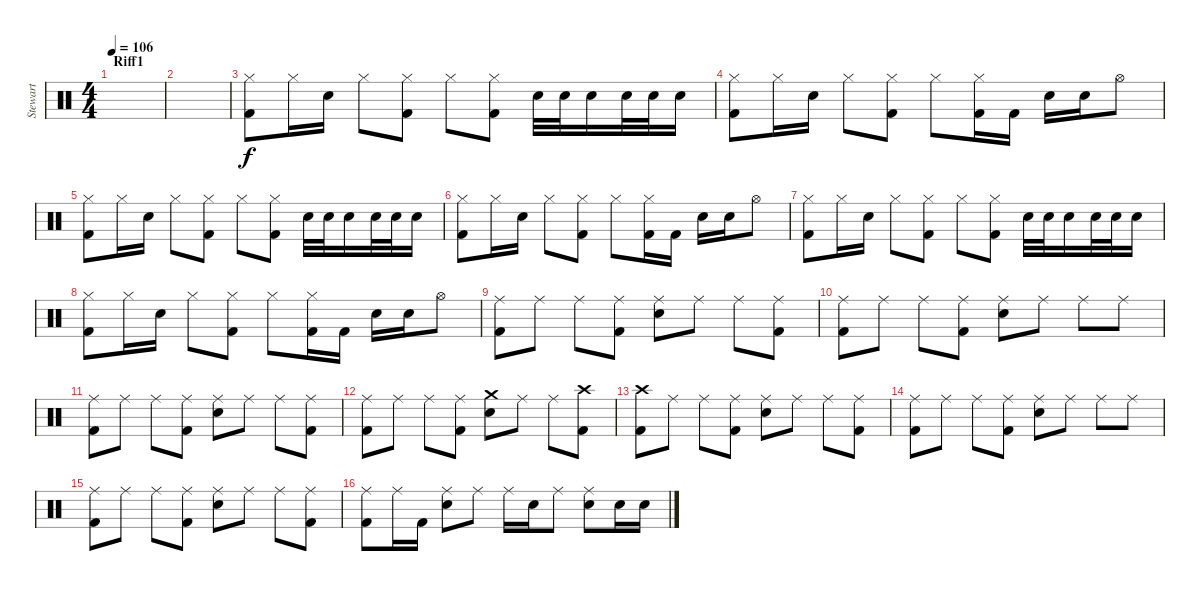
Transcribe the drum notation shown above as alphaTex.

\track ("Stewart" "Stewart") {instrument percussion}
\staff {score}
\articulation defaults
\ts (4 4)
\section ("" "Riff1")
\tempo 106
\clef neutral
\ks c
|
|
("Hi-Hat (closed)" "Kick (hit) 2").8 "Hi-Hat (closed)".16 "Electric Snare (hit)".16 "Hi-Hat (closed)".8 ("Hi-Hat (closed)" "Kick (hit) 2").8 "Hi-Hat (closed)".8 ("Hi-Hat (closed)" "Kick (hit) 2").8 "Electric Snare (hit)".32 "Electric Snare (hit)".32 "Electric Snare (hit)".16 "Electric Snare (hit)".32 "Electric Snare (hit)".32 "Electric Snare (hit)".16 |
("Hi-Hat (closed)" "Kick (hit) 2").8 "Hi-Hat (closed)".16 "Electric Snare (hit)".16 "Hi-Hat (closed)".8 ("Hi-Hat (closed)" "Kick (hit) 2").8 "Hi-Hat (closed)".8 ("Hi-Hat (closed)" "Kick (hit) 2").16 "Kick (hit) 2".16 "Electric Snare (hit)".16 "Electric Snare (hit)".16 "Hi-Hat (open)".8 |
("Hi-Hat (closed)" "Kick (hit) 2").8 "Hi-Hat (closed)".16 "Electric Snare (hit)".16 "Hi-Hat (closed)".8 ("Hi-Hat (closed)" "Kick (hit) 2").8 "Hi-Hat (closed)".8 ("Hi-Hat (closed)" "Kick (hit) 2").8 "Electric Snare (hit)".32 "Electric Snare (hit)".32 "Electric Snare (hit)".16 "Electric Snare (hit)".32 "Electric Snare (hit)".32 "Electric Snare (hit)".16 |
("Hi-Hat (closed)" "Kick (hit) 2").8 "Hi-Hat (closed)".16 "Electric Snare (hit)".16 "Hi-Hat (closed)".8 ("Hi-Hat (closed)" "Kick (hit) 2").8 "Hi-Hat (closed)".8 ("Hi-Hat (closed)" "Kick (hit) 2").16 "Kick (hit) 2".16 "Electric Snare (hit)".16 "Electric Snare (hit)".16 "Hi-Hat (open)".8 |
("Hi-Hat (closed)" "Kick (hit) 2").8 "Hi-Hat (closed)".16 "Electric Snare (hit)".16 "Hi-Hat (closed)".8 ("Hi-Hat (closed)" "Kick (hit) 2").8 "Hi-Hat (closed)".8 ("Hi-Hat (closed)" "Kick (hit) 2").8 "Electric Snare (hit)".32 "Electric Snare (hit)".32 "Electric Snare (hit)".16 "Electric Snare (hit)".32 "Electric Snare (hit)".32 "Electric Snare (hit)".16 |
("Hi-Hat (closed)" "Kick (hit) 2").8 "Hi-Hat (closed)".16 "Electric Snare (hit)".16 "Hi-Hat (closed)".8 ("Hi-Hat (closed)" "Kick (hit) 2").8 "Hi-Hat (closed)".8 ("Hi-Hat (closed)" "Kick (hit) 2").16 "Kick (hit) 2".16 "Electric Snare (hit)".16 "Electric Snare (hit)".16 "Hi-Hat (open)".8 |
("Ride (middle)" "Kick (hit) 2").8 "Ride (middle)".8 "Ride (middle)".8 ("Ride (middle)" "Kick (hit) 2").8 ("Ride (middle)" "Electric Snare (hit)").8 "Ride (middle)".8 "Ride (middle)".8 ("Ride (middle)" "Kick (hit) 2").8 |
("Ride (middle)" "Kick (hit) 2").8 "Ride (middle)".8 "Ride (middle)".8 ("Ride (middle)" "Kick (hit) 2").8 ("Ride (middle)" "Electric Snare (hit)").8 "Ride (middle)".8 "Ride (middle)".8 "Ride (middle)".8 |
("Ride (middle)" "Kick (hit) 2").8 "Ride (middle)".8 "Ride (middle)".8 ("Ride (middle)" "Kick (hit) 2").8 ("Ride (middle)" "Electric Snare (hit)").8 "Ride (middle)".8 "Ride (middle)".8 ("Ride (middle)" "Kick (hit) 2").8 |
("Ride (middle)" "Kick (hit) 2").8 "Ride (middle)".8 "Ride (middle)".8 ("Ride (middle)" "Kick (hit) 2").8 ("Crash medium (hit)" "Electric Snare (hit)").8 "Ride (middle)".8 "Ride (middle)".8 ("Crash high (hit)" "Kick (hit) 2").8 |
("Crash high (hit)" "Kick (hit) 2").8 "Ride (middle)".8 "Ride (middle)".8 ("Ride (middle)" "Kick (hit) 2").8 ("Ride (middle)" "Electric Snare (hit)").8 "Ride (middle)".8 "Ride (middle)".8 ("Ride (middle)" "Kick (hit) 2").8 |
("Ride (middle)" "Kick (hit) 2").8 "Ride (middle)".8 "Ride (middle)".8 ("Ride (middle)" "Kick (hit) 2").8 ("Ride (middle)" "Electric Snare (hit)").8 "Ride (middle)".8 "Ride (middle)".8 "Ride (middle)".8 |
("Ride (middle)" "Kick (hit) 2").8 "Ride (middle)".8 "Ride (middle)".8 ("Ride (middle)" "Kick (hit) 2").8 ("Ride (middle)" "Electric Snare (hit)").8 "Ride (middle)".8 "Ride (middle)".8 ("Ride (middle)" "Kick (hit) 2").8 |
("Ride (middle)" "Kick (hit) 2").8 "Ride (middle)".16 "Kick (hit) 2".16 ("Ride (middle)" "Electric Snare (hit)").8 "Ride (middle)".8 "Ride (middle)".16 "Electric Snare (hit)".16 "Ride (middle)".8 ("Ride (middle)" "Electric Snare (hit)").8 "Electric Snare (hit)".16 "Electric Snare (hit)".16
